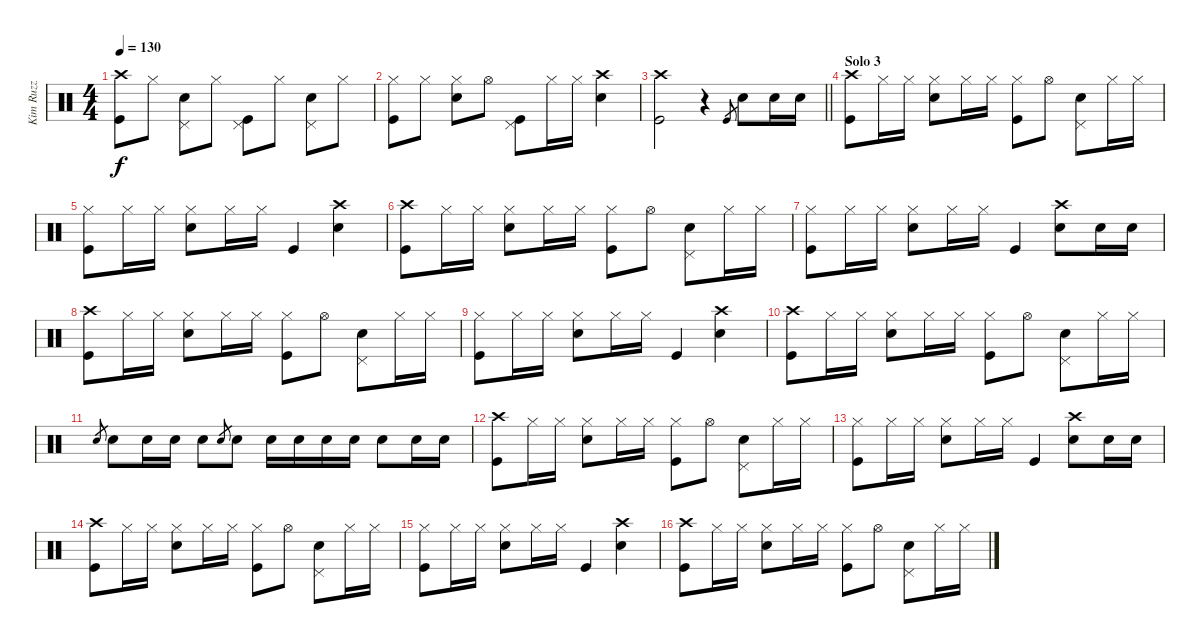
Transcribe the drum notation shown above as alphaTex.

\track ("Kim Ruzz" "Kim Ruzz") {instrument percussion}
\staff {score}
\articulation defaults
\ts (4 4)
\tempo 130
\clef neutral
\ks c
("Crash high (hit)" "Kick (hit)").8{dy f} "Hi-Hat (closed)".8 ("Pedal Hi-Hat (hit)" "Snare (hit) 2").8 "Hi-Hat (closed)".8 ("Pedal Hi-Hat (hit)" "Kick (hit)").8 "Hi-Hat (closed)".8 ("Pedal Hi-Hat (hit)" "Snare (hit) 2").8 "Hi-Hat (closed)".8 |
("Hi-Hat (closed)" "Kick (hit)").8 "Hi-Hat (closed)".8 ("Hi-Hat (closed)" "Snare (hit) 2").8 "Hi-Hat (open)".8 ("Pedal Hi-Hat (hit)" "Kick (hit)").8 "Hi-Hat (closed)".16 "Hi-Hat (closed)".16 ("Crash high (hit)" "Snare (hit) 2").4 |
\barLineRight lightlight
("Crash high (hit)" "Kick (hit)").2 r.4 "Kick (hit)".8{gr} "Snare (hit) 2".8 "Snare (hit) 2".16 "Snare (hit) 2".16 |
\section ("" "Solo 3")
("Crash high (hit)" "Kick (hit)").8 "Hi-Hat (closed)".16 "Hi-Hat (closed)".16 ("Hi-Hat (closed)" "Snare (hit) 2").8 "Hi-Hat (closed)".16 "Hi-Hat (closed)".16 ("Hi-Hat (closed)" "Kick (hit)").8 "Hi-Hat (open)".8 ("Pedal Hi-Hat (hit)" "Snare (hit) 2").8 "Hi-Hat (closed)".16 "Hi-Hat (closed)".16 |
("Hi-Hat (closed)" "Kick (hit)").8 "Hi-Hat (closed)".16 "Hi-Hat (closed)".16 ("Hi-Hat (closed)" "Snare (hit) 2").8 "Hi-Hat (closed)".16 "Hi-Hat (closed)".16 "Kick (hit)".4 ("Crash high (hit)" "Snare (hit) 2").4 |
("Crash high (hit)" "Kick (hit)").8 "Hi-Hat (closed)".16 "Hi-Hat (closed)".16 ("Hi-Hat (closed)" "Snare (hit) 2").8 "Hi-Hat (closed)".16 "Hi-Hat (closed)".16 ("Hi-Hat (closed)" "Kick (hit)").8 "Hi-Hat (open)".8 ("Pedal Hi-Hat (hit)" "Snare (hit) 2").8 "Hi-Hat (closed)".16 "Hi-Hat (closed)".16 |
("Hi-Hat (closed)" "Kick (hit)").8 "Hi-Hat (closed)".16 "Hi-Hat (closed)".16 ("Hi-Hat (closed)" "Snare (hit) 2").8 "Hi-Hat (closed)".16 "Hi-Hat (closed)".16 "Kick (hit)".4 ("Crash high (hit)" "Snare (hit) 2").8 "Snare (hit) 2".16 "Snare (hit) 2".16 |
("Crash high (hit)" "Kick (hit)").8 "Hi-Hat (closed)".16 "Hi-Hat (closed)".16 ("Hi-Hat (closed)" "Snare (hit) 2").8 "Hi-Hat (closed)".16 "Hi-Hat (closed)".16 ("Hi-Hat (closed)" "Kick (hit)").8 "Hi-Hat (open)".8 ("Pedal Hi-Hat (hit)" "Snare (hit) 2").8 "Hi-Hat (closed)".16 "Hi-Hat (closed)".16 |
("Hi-Hat (closed)" "Kick (hit)").8 "Hi-Hat (closed)".16 "Hi-Hat (closed)".16 ("Hi-Hat (closed)" "Snare (hit) 2").8 "Hi-Hat (closed)".16 "Hi-Hat (closed)".16 "Kick (hit)".4 ("Crash high (hit)" "Snare (hit) 2").4 |
("Crash high (hit)" "Kick (hit)").8 "Hi-Hat (closed)".16 "Hi-Hat (closed)".16 ("Hi-Hat (closed)" "Snare (hit) 2").8 "Hi-Hat (closed)".16 "Hi-Hat (closed)".16 ("Hi-Hat (closed)" "Kick (hit)").8 "Hi-Hat (open)".8 ("Pedal Hi-Hat (hit)" "Snare (hit) 2").8 "Hi-Hat (closed)".16 "Hi-Hat (closed)".16 |
"Snare (hit) 2".8{gr} "Snare (hit) 2".8 "Snare (hit) 2".16 "Snare (hit) 2".16 "Snare (hit) 2".8 "Snare (hit) 2".8{gr} "Snare (hit) 2".8 "Snare (hit) 2".16 "Snare (hit) 2".16 "Snare (hit) 2".16 "Snare (hit) 2".16 "Snare (hit) 2".8 "Snare (hit) 2".16 "Snare (hit) 2".16 |
("Crash high (hit)" "Kick (hit)").8 "Hi-Hat (closed)".16 "Hi-Hat (closed)".16 ("Hi-Hat (closed)" "Snare (hit) 2").8 "Hi-Hat (closed)".16 "Hi-Hat (closed)".16 ("Hi-Hat (closed)" "Kick (hit)").8 "Hi-Hat (open)".8 ("Pedal Hi-Hat (hit)" "Snare (hit) 2").8 "Hi-Hat (closed)".16 "Hi-Hat (closed)".16 |
("Hi-Hat (closed)" "Kick (hit)").8 "Hi-Hat (closed)".16 "Hi-Hat (closed)".16 ("Hi-Hat (closed)" "Snare (hit) 2").8 "Hi-Hat (closed)".16 "Hi-Hat (closed)".16 "Kick (hit)".4 ("Crash high (hit)" "Snare (hit) 2").8 "Snare (hit) 2".16 "Snare (hit) 2".16 |
("Crash high (hit)" "Kick (hit)").8 "Hi-Hat (closed)".16 "Hi-Hat (closed)".16 ("Hi-Hat (closed)" "Snare (hit) 2").8 "Hi-Hat (closed)".16 "Hi-Hat (closed)".16 ("Hi-Hat (closed)" "Kick (hit)").8 "Hi-Hat (open)".8 ("Pedal Hi-Hat (hit)" "Snare (hit) 2").8 "Hi-Hat (closed)".16 "Hi-Hat (closed)".16 |
("Hi-Hat (closed)" "Kick (hit)").8 "Hi-Hat (closed)".16 "Hi-Hat (closed)".16 ("Hi-Hat (closed)" "Snare (hit) 2").8 "Hi-Hat (closed)".16 "Hi-Hat (closed)".16 "Kick (hit)".4 ("Crash high (hit)" "Snare (hit) 2").4 |
("Crash high (hit)" "Kick (hit)").8 "Hi-Hat (closed)".16 "Hi-Hat (closed)".16 ("Hi-Hat (closed)" "Snare (hit) 2").8 "Hi-Hat (closed)".16 "Hi-Hat (closed)".16 ("Hi-Hat (closed)" "Kick (hit)").8 "Hi-Hat (open)".8 ("Pedal Hi-Hat (hit)" "Snare (hit) 2").8 "Hi-Hat (closed)".16 "Hi-Hat (closed)".16
